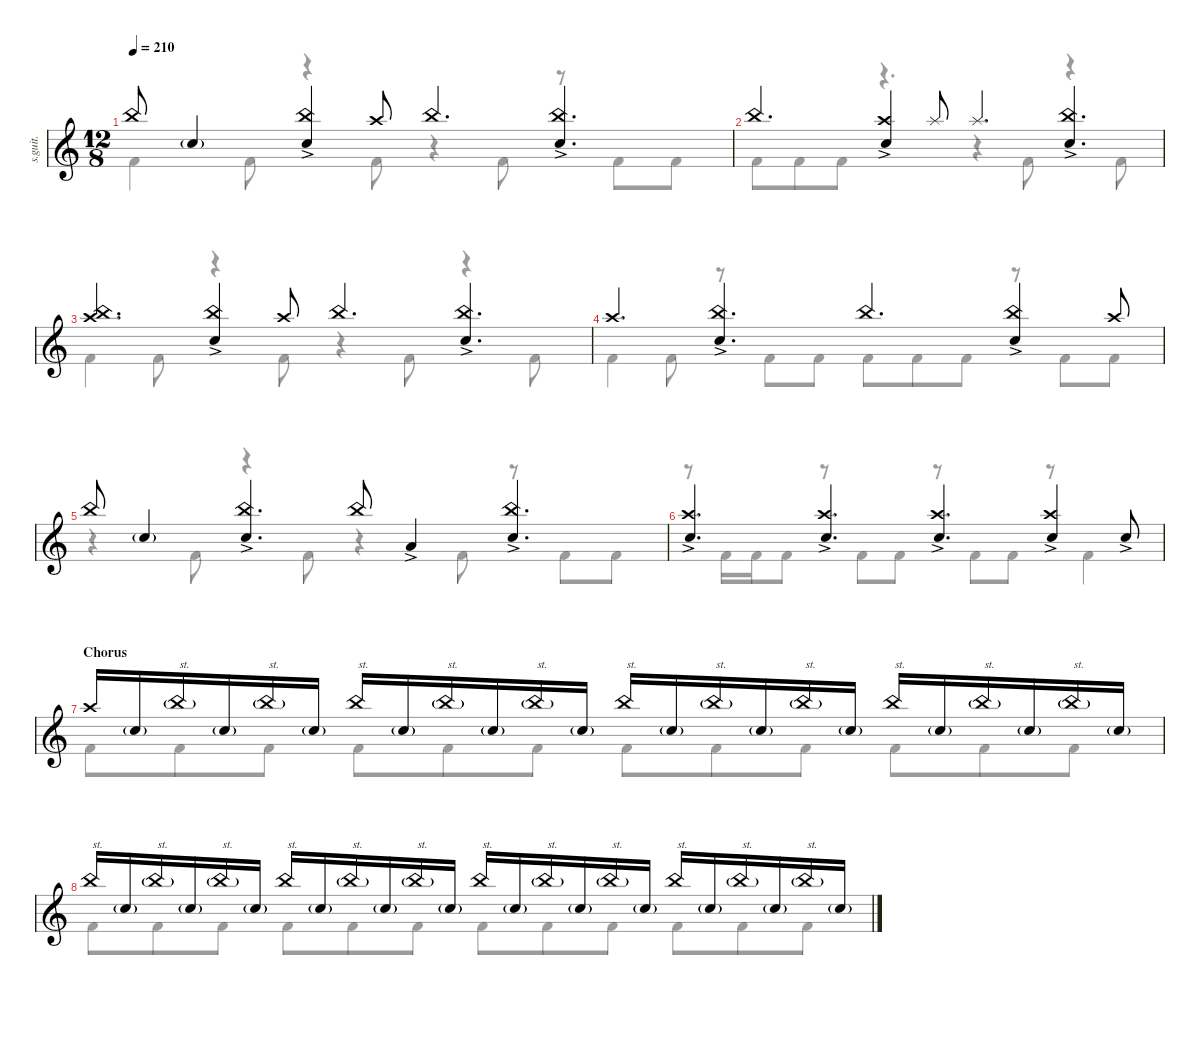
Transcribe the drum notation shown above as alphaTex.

\defaultSystemsLayout 4
\hideDynamics
\bracketExtendMode nobrackets
\track ("Percussion" "s.guit.") {instrument percussion}
\staff {score}
\articulation defaults
\voice
\ts (12 8)
\tempo 210
\clef g2
\ks c "China (hit)".8{lyrics (0 "") lyrics (1 "") lyrics (2 "") lyrics (3 "") lyrics (4 "") dy f} "Snare (hit) 2"{g}.4{lyrics (0 "") lyrics (1 "") lyrics (2 "") lyrics (3 "") lyrics (4 "") dy ff}
("China (hit)" "Snare (hit) 2"{ac}).4{lyrics (0 "") lyrics (1 "") lyrics (2 "") lyrics (3 "") lyrics (4 "") dy f} "Crash high (hit)".8{lyrics (0 "") lyrics (1 "") lyrics (2 "") lyrics (3 "") lyrics (4 "")} "China (hit)".4{d lyrics (0 "") lyrics (1 "") lyrics (2 "") lyrics (3 "") lyrics (4 "")} ("China (hit)" "Snare (hit) 2"{ac}).4{d lyrics (0 "") lyrics (1 "") lyrics (2 "") lyrics (3 "") lyrics (4 "")} |
"China (hit)".4{d lyrics (0 "") lyrics (1 "") lyrics (2 "") lyrics (3 "") lyrics (4 "")} ("Snare (hit) 2"{ac} "Crash high (hit)").4{lyrics (0 "") lyrics (1 "") lyrics (2 "") lyrics (3 "") lyrics (4 "")} "Splash (hit)".8{lyrics (0 "") lyrics (1 "") lyrics (2 "") lyrics (3 "") lyrics (4 "")} "Splash (hit)".4{d lyrics (0 "") lyrics (1 "") lyrics (2 "") lyrics (3 "") lyrics (4 "")} ("China (hit)" "Snare (hit) 2"{ac}).4{d lyrics (0 "") lyrics (1 "") lyrics (2 "") lyrics (3 "") lyrics (4 "")} |
("China (hit)" "Crash high (hit)").4{d lyrics (0 "") lyrics (1 "") lyrics (2 "") lyrics (3 "") lyrics (4 "")} ("China (hit)" "Snare (hit) 2"{ac}).4{lyrics (0 "") lyrics (1 "") lyrics (2 "") lyrics (3 "") lyrics (4 "")} "Crash high (hit)".8{lyrics (0 "") lyrics (1 "") lyrics (2 "") lyrics (3 "") lyrics (4 "")} "China (hit)".4{d lyrics (0 "") lyrics (1 "") lyrics (2 "") lyrics (3 "") lyrics (4 "")} ("China (hit)" "Snare (hit) 2"{ac}).4{d lyrics (0 "") lyrics (1 "") lyrics (2 "") lyrics (3 "") lyrics (4 "")} |
"Crash high (hit)".4{d lyrics (0 "") lyrics (1 "") lyrics (2 "") lyrics (3 "") lyrics (4 "")} ("China (hit)" "Snare (hit) 2"{ac}).4{d lyrics (0 "") lyrics (1 "") lyrics (2 "") lyrics (3 "") lyrics (4 "")} "China (hit)".4{d lyrics (0 "") lyrics (1 "") lyrics (2 "") lyrics (3 "") lyrics (4 "")} ("China (hit)" "Snare (hit) 2"{ac}).4{lyrics (0 "") lyrics (1 "") lyrics (2 "") lyrics (3 "") lyrics (4 "")} "Crash high (hit)".8{lyrics (0 "") lyrics (1 "") lyrics (2 "") lyrics (3 "") lyrics (4 "")} |
"China (hit)".8{lyrics (0 "") lyrics (1 "") lyrics (2 "") lyrics (3 "") lyrics (4 "")} "Snare (hit) 2"{g}.4{lyrics (0 "") lyrics (1 "") lyrics (2 "") lyrics (3 "") lyrics (4 "") dy ff} ("Snare (hit) 2"{ac} "China (hit)").4{d lyrics (0 "") lyrics (1 "") lyrics (2 "") lyrics (3 "") lyrics (4 "") dy f} "China (hit)".8{lyrics (0 "") lyrics (1 "") lyrics (2 "") lyrics (3 "") lyrics (4 "")} "Low Tom (hit)"{ac}.4{lyrics (0 "") lyrics (1 "") lyrics (2 "") lyrics (3 "") lyrics (4 "") dy mf} ("Snare (hit) 2"{ac} "China (hit)").4{d lyrics (0 "") lyrics (1 "") lyrics (2 "") lyrics (3 "") lyrics (4 "") dy f} |
("Snare (hit) 2"{ac} "Crash high (hit)").4{d lyrics (0 "") lyrics (1 "") lyrics (2 "") lyrics (3 "") lyrics (4 "")} ("Crash high (hit)" "Snare (hit) 2"{ac}).4{d lyrics (0 "") lyrics (1 "") lyrics (2 "") lyrics (3 "") lyrics (4 "")} ("Crash high (hit)" "Snare (hit) 2"{ac}).4{d lyrics (0 "") lyrics (1 "") lyrics (2 "") lyrics (3 "") lyrics (4 "")} ("Crash high (hit)" "Snare (hit) 2"{ac}).4{lyrics (0 "") lyrics (1 "") lyrics (2 "") lyrics (3 "") lyrics (4 "")} "Snare (hit) 2"{ac}.8{lyrics (0 "") lyrics (1 "") lyrics (2 "") lyrics (3 "") lyrics (4 "") dy mf} |
\section ("" "Chorus")
"Crash high (hit)".16{lyrics (0 "") lyrics (1 "") lyrics (2 "") lyrics (3 "") lyrics (4 "") dy f} "Snare (hit) 2"{g}.16{lyrics (0 "") lyrics (1 "") lyrics (2 "") lyrics (3 "") lyrics (4 "") dy ff} "China (hit)"{g}.16{txt "st." lyrics (0 "") lyrics (1 "") lyrics (2 "") lyrics (3 "") lyrics (4 "")} "Snare (hit) 2"{g}.16{lyrics (0 "") lyrics (1 "") lyrics (2 "") lyrics (3 "") lyrics (4 "")} "China (hit)"{g}.16{txt "st." lyrics (0 "") lyrics (1 "") lyrics (2 "") lyrics (3 "") lyrics (4 "")} "Snare (hit) 2"{g}.16{lyrics (0 "") lyrics (1 "") lyrics (2 "") lyrics (3 "") lyrics (4 "")} "China (hit)".16{txt "st." lyrics (0 "") lyrics (1 "") lyrics (2 "") lyrics (3 "") lyrics (4 "") dy f} "Snare (hit) 2"{g}.16{lyrics (0 "") lyrics (1 "") lyrics (2 "") lyrics (3 "") lyrics (4 "") dy ff} "China (hit)"{g}.16{txt "st." lyrics (0 "") lyrics (1 "") lyrics (2 "") lyrics (3 "") lyrics (4 "")} "Snare (hit) 2"{g}.16{lyrics (0 "") lyrics (1 "") lyrics (2 "") lyrics (3 "") lyrics (4 "")} "China (hit)"{g}.16{txt "st." lyrics (0 "") lyrics (1 "") lyrics (2 "") lyrics (3 "") lyrics (4 "")} "Snare (hit) 2"{g}.16{lyrics (0 "") lyrics (1 "") lyrics (2 "") lyrics (3 "") lyrics (4 "")} "China (hit)".16{txt "st." lyrics (0 "") lyrics (1 "") lyrics (2 "") lyrics (3 "") lyrics (4 "") dy f} "Snare (hit) 2"{g}.16{lyrics (0 "") lyrics (1 "") lyrics (2 "") lyrics (3 "") lyrics (4 "") dy ff} "China (hit)"{g}.16{txt "st." lyrics (0 "") lyrics (1 "") lyrics (2 "") lyrics (3 "") lyrics (4 "")} "Snare (hit) 2"{g}.16{lyrics (0 "") lyrics (1 "") lyrics (2 "") lyrics (3 "") lyrics (4 "")} "China (hit)"{g}.16{txt "st." lyrics (0 "") lyrics (1 "") lyrics (2 "") lyrics (3 "") lyrics (4 "")} "Snare (hit) 2"{g}.16{lyrics (0 "") lyrics (1 "") lyrics (2 "") lyrics (3 "") lyrics (4 "")} "China (hit)".16{txt "st." lyrics (0 "") lyrics (1 "") lyrics (2 "") lyrics (3 "") lyrics (4 "") dy f} "Snare (hit) 2"{g}.16{lyrics (0 "") lyrics (1 "") lyrics (2 "") lyrics (3 "") lyrics (4 "") dy ff} "China (hit)"{g}.16{txt "st." lyrics (0 "") lyrics (1 "") lyrics (2 "") lyrics (3 "") lyrics (4 "")} "Snare (hit) 2"{g}.16{lyrics (0 "") lyrics (1 "") lyrics (2 "") lyrics (3 "") lyrics (4 "")} "China (hit)"{g}.16{txt "st." lyrics (0 "") lyrics (1 "") lyrics (2 "") lyrics (3 "") lyrics (4 "")} "Snare (hit) 2"{g}.16{lyrics (0 "") lyrics (1 "") lyrics (2 "") lyrics (3 "") lyrics (4 "")} |
"China (hit)".16{txt "st." lyrics (0 "") lyrics (1 "") lyrics (2 "") lyrics (3 "") lyrics (4 "") dy f} "Snare (hit) 2"{g}.16{lyrics (0 "") lyrics (1 "") lyrics (2 "") lyrics (3 "") lyrics (4 "") dy ff} "China (hit)"{g}.16{txt "st." lyrics (0 "") lyrics (1 "") lyrics (2 "") lyrics (3 "") lyrics (4 "")} "Snare (hit) 2"{g}.16{lyrics (0 "") lyrics (1 "") lyrics (2 "") lyrics (3 "") lyrics (4 "")} "China (hit)"{g}.16{txt "st." lyrics (0 "") lyrics (1 "") lyrics (2 "") lyrics (3 "") lyrics (4 "")} "Snare (hit) 2"{g}.16{lyrics (0 "") lyrics (1 "") lyrics (2 "") lyrics (3 "") lyrics (4 "")} "China (hit)".16{txt "st." lyrics (0 "") lyrics (1 "") lyrics (2 "") lyrics (3 "") lyrics (4 "") dy f} "Snare (hit) 2"{g}.16{lyrics (0 "") lyrics (1 "") lyrics (2 "") lyrics (3 "") lyrics (4 "") dy ff} "China (hit)"{g}.16{txt "st." lyrics (0 "") lyrics (1 "") lyrics (2 "") lyrics (3 "") lyrics (4 "")} "Snare (hit) 2"{g}.16{lyrics (0 "") lyrics (1 "") lyrics (2 "") lyrics (3 "") lyrics (4 "")} "China (hit)"{g}.16{txt "st." lyrics (0 "") lyrics (1 "") lyrics (2 "") lyrics (3 "") lyrics (4 "")} "Snare (hit) 2"{g}.16{lyrics (0 "") lyrics (1 "") lyrics (2 "") lyrics (3 "") lyrics (4 "")} "China (hit)".16{txt "st." lyrics (0 "") lyrics (1 "") lyrics (2 "") lyrics (3 "") lyrics (4 "") dy f} "Snare (hit) 2"{g}.16{lyrics (0 "") lyrics (1 "") lyrics (2 "") lyrics (3 "") lyrics (4 "") dy ff} "China (hit)"{g}.16{txt "st." lyrics (0 "") lyrics (1 "") lyrics (2 "") lyrics (3 "") lyrics (4 "")} "Snare (hit) 2"{g}.16{lyrics (0 "") lyrics (1 "") lyrics (2 "") lyrics (3 "") lyrics (4 "")} "China (hit)"{g}.16{txt "st." lyrics (0 "") lyrics (1 "") lyrics (2 "") lyrics (3 "") lyrics (4 "")} "Snare (hit) 2"{g}.16{lyrics (0 "") lyrics (1 "") lyrics (2 "") lyrics (3 "") lyrics (4 "")} "China (hit)".16{txt "st." lyrics (0 "") lyrics (1 "") lyrics (2 "") lyrics (3 "") lyrics (4 "") dy f} "Snare (hit) 2"{g}.16{lyrics (0 "") lyrics (1 "") lyrics (2 "") lyrics (3 "") lyrics (4 "") dy ff} "China (hit)"{g}.16{txt "st." lyrics (0 "") lyrics (1 "") lyrics (2 "") lyrics (3 "") lyrics (4 "")} "Snare (hit) 2"{g}.16{lyrics (0 "") lyrics (1 "") lyrics (2 "") lyrics (3 "") lyrics (4 "")} "China (hit)"{g}.16{txt "st." lyrics (0 "") lyrics (1 "") lyrics (2 "") lyrics (3 "") lyrics (4 "")} "Snare (hit) 2"{g}.16{lyrics (0 "") lyrics (1 "") lyrics (2 "") lyrics (3 "") lyrics (4 "")}
\voice
\clef g2
\ottava regular
\simile none
\ks c "Kick (hit) 2".4{lyrics (0 "") lyrics (1 "") lyrics (2 "") lyrics (3 "") lyrics (4 "") dy f} "Kick (hit) 2".8{lyrics (0 "") lyrics (1 "") lyrics (2 "") lyrics (3 "") lyrics (4 "")}
r.4 "Kick (hit) 2".8{lyrics (0 "") lyrics (1 "") lyrics (2 "") lyrics (3 "") lyrics (4 "")} r.4 "Kick (hit) 2".8{lyrics (0 "") lyrics (1 "") lyrics (2 "") lyrics (3 "") lyrics (4 "")} r.8 "Kick (hit) 2".8{lyrics (0 "") lyrics (1 "") lyrics (2 "") lyrics (3 "") lyrics (4 "")} "Kick (hit) 2".8{lyrics (0 "") lyrics (1 "") lyrics (2 "") lyrics (3 "") lyrics (4 "")} |
"Kick (hit) 2".8{lyrics (0 "") lyrics (1 "") lyrics (2 "") lyrics (3 "") lyrics (4 "")} "Kick (hit) 2".8{lyrics (0 "") lyrics (1 "") lyrics (2 "") lyrics (3 "") lyrics (4 "")} "Kick (hit) 2".8{lyrics (0 "") lyrics (1 "") lyrics (2 "") lyrics (3 "") lyrics (4 "")} r.4{d} r.4 "Kick (hit) 2".8{lyrics (0 "") lyrics (1 "") lyrics (2 "") lyrics (3 "") lyrics (4 "")} r.4 "Kick (hit) 2".8{lyrics (0 "") lyrics (1 "") lyrics (2 "") lyrics (3 "") lyrics (4 "")} |
"Kick (hit) 2".4{lyrics (0 "") lyrics (1 "") lyrics (2 "") lyrics (3 "") lyrics (4 "")} "Kick (hit) 2".8{lyrics (0 "") lyrics (1 "") lyrics (2 "") lyrics (3 "") lyrics (4 "")} r.4 "Kick (hit) 2".8{lyrics (0 "") lyrics (1 "") lyrics (2 "") lyrics (3 "") lyrics (4 "")} r.4 "Kick (hit) 2".8{lyrics (0 "") lyrics (1 "") lyrics (2 "") lyrics (3 "") lyrics (4 "")} r.4 "Kick (hit) 2".8{lyrics (0 "") lyrics (1 "") lyrics (2 "") lyrics (3 "") lyrics (4 "")} |
"Kick (hit) 2".4{lyrics (0 "") lyrics (1 "") lyrics (2 "") lyrics (3 "") lyrics (4 "")} "Kick (hit) 2".8{lyrics (0 "") lyrics (1 "") lyrics (2 "") lyrics (3 "") lyrics (4 "")} r.8 "Kick (hit) 2".8{lyrics (0 "") lyrics (1 "") lyrics (2 "") lyrics (3 "") lyrics (4 "")} "Kick (hit) 2".8{lyrics (0 "") lyrics (1 "") lyrics (2 "") lyrics (3 "") lyrics (4 "")} "Kick (hit) 2".8{lyrics (0 "") lyrics (1 "") lyrics (2 "") lyrics (3 "") lyrics (4 "")} "Kick (hit) 2".8{lyrics (0 "") lyrics (1 "") lyrics (2 "") lyrics (3 "") lyrics (4 "")} "Kick (hit) 2".8{lyrics (0 "") lyrics (1 "") lyrics (2 "") lyrics (3 "") lyrics (4 "")} r.8 "Kick (hit) 2".8{lyrics (0 "") lyrics (1 "") lyrics (2 "") lyrics (3 "") lyrics (4 "")} "Kick (hit) 2".8{lyrics (0 "") lyrics (1 "") lyrics (2 "") lyrics (3 "") lyrics (4 "")} |
r.4 "Kick (hit) 2".8{lyrics (0 "") lyrics (1 "") lyrics (2 "") lyrics (3 "") lyrics (4 "")} r.4 "Kick (hit) 2".8{lyrics (0 "") lyrics (1 "") lyrics (2 "") lyrics (3 "") lyrics (4 "")} r.4 "Kick (hit) 2".8{lyrics (0 "") lyrics (1 "") lyrics (2 "") lyrics (3 "") lyrics (4 "")} r.8 "Kick (hit) 2".8{lyrics (0 "") lyrics (1 "") lyrics (2 "") lyrics (3 "") lyrics (4 "")} "Kick (hit) 2".8{lyrics (0 "") lyrics (1 "") lyrics (2 "") lyrics (3 "") lyrics (4 "")} |
r.8 "Kick (hit) 2".16{lyrics (0 "") lyrics (1 "") lyrics (2 "") lyrics (3 "") lyrics (4 "")} "Kick (hit) 2".16{lyrics (0 "") lyrics (1 "") lyrics (2 "") lyrics (3 "") lyrics (4 "")} "Kick (hit) 2".8{lyrics (0 "") lyrics (1 "") lyrics (2 "") lyrics (3 "") lyrics (4 "")} r.8 "Kick (hit) 2".8{lyrics (0 "") lyrics (1 "") lyrics (2 "") lyrics (3 "") lyrics (4 "")} "Kick (hit) 2".8{lyrics (0 "") lyrics (1 "") lyrics (2 "") lyrics (3 "") lyrics (4 "")} r.8 "Kick (hit) 2".8{lyrics (0 "") lyrics (1 "") lyrics (2 "") lyrics (3 "") lyrics (4 "")} "Kick (hit) 2".8{lyrics (0 "") lyrics (1 "") lyrics (2 "") lyrics (3 "") lyrics (4 "")} r.8 "Kick (hit) 2".4{lyrics (0 "") lyrics (1 "") lyrics (2 "") lyrics (3 "") lyrics (4 "")} |
"Kick (hit) 2".8{lyrics (0 "") lyrics (1 "") lyrics (2 "") lyrics (3 "") lyrics (4 "")} "Kick (hit) 2".8{lyrics (0 "") lyrics (1 "") lyrics (2 "") lyrics (3 "") lyrics (4 "")} "Kick (hit) 2".8{lyrics (0 "") lyrics (1 "") lyrics (2 "") lyrics (3 "") lyrics (4 "")} "Kick (hit) 2".8{lyrics (0 "") lyrics (1 "") lyrics (2 "") lyrics (3 "") lyrics (4 "")} "Kick (hit) 2".8{lyrics (0 "") lyrics (1 "") lyrics (2 "") lyrics (3 "") lyrics (4 "")} "Kick (hit) 2".8{lyrics (0 "") lyrics (1 "") lyrics (2 "") lyrics (3 "") lyrics (4 "")} "Kick (hit) 2".8{lyrics (0 "") lyrics (1 "") lyrics (2 "") lyrics (3 "") lyrics (4 "")} "Kick (hit) 2".8{lyrics (0 "") lyrics (1 "") lyrics (2 "") lyrics (3 "") lyrics (4 "")} "Kick (hit) 2".8{lyrics (0 "") lyrics (1 "") lyrics (2 "") lyrics (3 "") lyrics (4 "")} "Kick (hit) 2".8{lyrics (0 "") lyrics (1 "") lyrics (2 "") lyrics (3 "") lyrics (4 "")} "Kick (hit) 2".8{lyrics (0 "") lyrics (1 "") lyrics (2 "") lyrics (3 "") lyrics (4 "")} "Kick (hit) 2".8{lyrics (0 "") lyrics (1 "") lyrics (2 "") lyrics (3 "") lyrics (4 "")} |
"Kick (hit) 2".8{lyrics (0 "") lyrics (1 "") lyrics (2 "") lyrics (3 "") lyrics (4 "")} "Kick (hit) 2".8{lyrics (0 "") lyrics (1 "") lyrics (2 "") lyrics (3 "") lyrics (4 "")} "Kick (hit) 2".8{lyrics (0 "") lyrics (1 "") lyrics (2 "") lyrics (3 "") lyrics (4 "")} "Kick (hit) 2".8{lyrics (0 "") lyrics (1 "") lyrics (2 "") lyrics (3 "") lyrics (4 "")} "Kick (hit) 2".8{lyrics (0 "") lyrics (1 "") lyrics (2 "") lyrics (3 "") lyrics (4 "")} "Kick (hit) 2".8{lyrics (0 "") lyrics (1 "") lyrics (2 "") lyrics (3 "") lyrics (4 "")} "Kick (hit) 2".8{lyrics (0 "") lyrics (1 "") lyrics (2 "") lyrics (3 "") lyrics (4 "")} "Kick (hit) 2".8{lyrics (0 "") lyrics (1 "") lyrics (2 "") lyrics (3 "") lyrics (4 "")} "Kick (hit) 2".8{lyrics (0 "") lyrics (1 "") lyrics (2 "") lyrics (3 "") lyrics (4 "")} "Kick (hit) 2".8{lyrics (0 "") lyrics (1 "") lyrics (2 "") lyrics (3 "") lyrics (4 "")} "Kick (hit) 2".8{lyrics (0 "") lyrics (1 "") lyrics (2 "") lyrics (3 "") lyrics (4 "")} "Kick (hit) 2".8{lyrics (0 "") lyrics (1 "") lyrics (2 "") lyrics (3 "") lyrics (4 "")}
